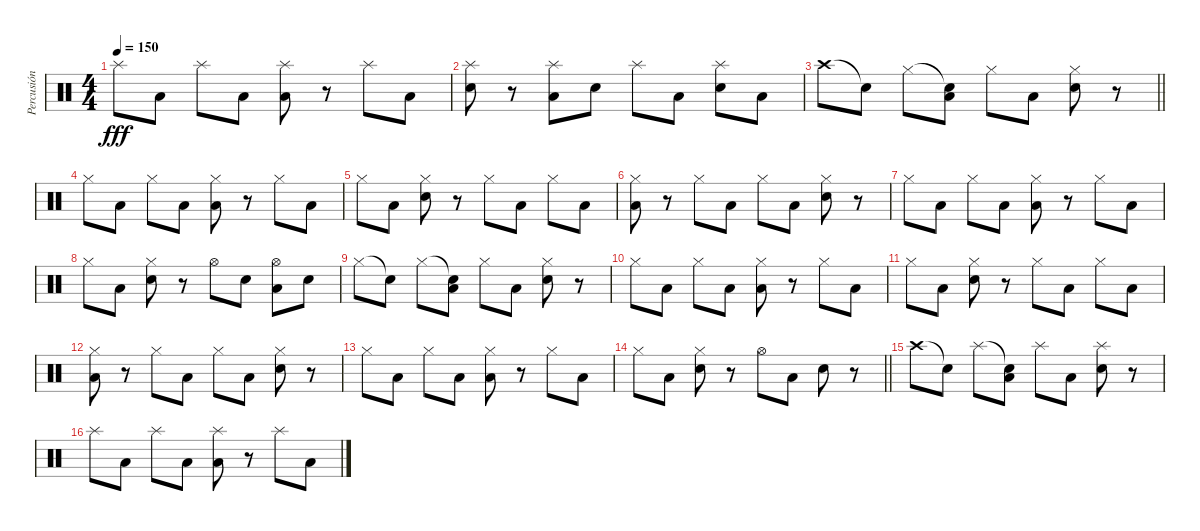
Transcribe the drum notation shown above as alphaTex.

\track ("Percusión" "Percusión") {instrument percussion}
\staff {score}
\articulation defaults
\ts (4 4)
\tempo 150
\clef neutral
\ks c "Splash (hit)".8{dy fff} "Low Tom (hit)".8 "Splash (hit)".8 "Low Tom (hit)".8
("Splash (hit)" "Low Tom (hit)").8 r.8 "Splash (hit)".8 "Low Tom (hit)".8 |
("Splash (hit)" "Snare (hit) 2").8 r.8 ("Splash (hit)" "Low Tom (hit)").8 "Snare (hit) 2".8 "Splash (hit)".8 "Low Tom (hit)".8 ("Splash (hit)" "Snare (hit) 2").8 "Low Tom (hit)".8 |
\barLineRight lightlight "Crash high (hit)".8 "Snare (hit)"{t}.8 "Hi-Hat (closed)".8
("Snare (hit)"{t} "Low Tom (hit)").8 "Hi-Hat (closed)".8 "Low Tom (hit)".8 ("Hi-Hat (closed)" "Snare (hit) 2").8 r.8 |
\section ("" "")
"Hi-Hat (closed)".8 "Low Tom (hit)".8 "Hi-Hat (closed)".8 "Low Tom (hit)".8 ("Hi-Hat (closed)" "Low Tom (hit)").8 r.8 "Hi-Hat (closed)".8 "Low Tom (hit)".8 |
"Hi-Hat (closed)".8 "Low Tom (hit)".8 ("Hi-Hat (closed)" "Snare (hit) 2").8 r.8 "Hi-Hat (closed)".8 "Low Tom (hit)".8 "Hi-Hat (closed)".8 "Low Tom (hit)".8 |
("Hi-Hat (closed)" "Low Tom (hit)").8 r.8 "Hi-Hat (closed)".8 "Low Tom (hit)".8 "Hi-Hat (closed)".8 "Low Tom (hit)".8 ("Hi-Hat (closed)" "Snare (hit) 2").8 r.8 |
"Hi-Hat (closed)".8 "Low Tom (hit)".8 "Hi-Hat (closed)".8 "Low Tom (hit)".8 ("Hi-Hat (closed)" "Low Tom (hit)").8 r.8 "Hi-Hat (closed)".8 "Low Tom (hit)".8 |
"Hi-Hat (closed)".8 "Low Tom (hit)".8 ("Hi-Hat (closed)" "Snare (hit) 2").8 r.8 "Hi-Hat (open)".8 "Snare (hit) 2".8 ("Hi-Hat (open)" "Low Tom (hit)").8 "Snare (hit) 2".8 |
"Hi-Hat (closed)".8 "Snare (hit)"{t}.8 "Hi-Hat (closed)".8 ("Snare (hit)"{t} "Low Tom (hit)").8 "Hi-Hat (closed)".8 "Low Tom (hit)".8 ("Hi-Hat (closed)" "Snare (hit) 2").8 r.8 |
"Hi-Hat (closed)".8 "Low Tom (hit)".8 "Hi-Hat (closed)".8 "Low Tom (hit)".8 ("Hi-Hat (closed)" "Low Tom (hit)").8 r.8 "Hi-Hat (closed)".8 "Low Tom (hit)".8 |
"Hi-Hat (closed)".8 "Low Tom (hit)".8 ("Hi-Hat (closed)" "Snare (hit) 2").8 r.8 "Hi-Hat (closed)".8 "Low Tom (hit)".8 "Hi-Hat (closed)".8 "Low Tom (hit)".8 |
("Hi-Hat (closed)" "Low Tom (hit)").8 r.8 "Hi-Hat (closed)".8 "Low Tom (hit)".8 "Hi-Hat (closed)".8 "Low Tom (hit)".8 ("Hi-Hat (closed)" "Snare (hit) 2").8 r.8 |
"Hi-Hat (closed)".8 "Low Tom (hit)".8 "Hi-Hat (closed)".8 "Low Tom (hit)".8 ("Hi-Hat (closed)" "Low Tom (hit)").8 r.8 "Hi-Hat (closed)".8 "Low Tom (hit)".8 |
\barLineRight lightlight "Hi-Hat (closed)".8 "Low Tom (hit)".8
("Hi-Hat (closed)" "Snare (hit) 2").8 r.8 "Hi-Hat (open)".8 "Low Tom (hit)".8 "Snare (hit) 2".8 r.8 |
\section ("" "")
"Crash high (hit)".8 "Snare (hit)"{t}.8 "Splash (hit)".8 ("Snare (hit)"{t} "Low Tom (hit)").8 "Splash (hit)".8 "Low Tom (hit)".8 ("Splash (hit)" "Snare (hit) 2").8 r.8 |
"Splash (hit)".8 "Low Tom (hit)".8 "Splash (hit)".8 "Low Tom (hit)".8 ("Splash (hit)" "Low Tom (hit)").8 r.8 "Splash (hit)".8 "Low Tom (hit)".8
